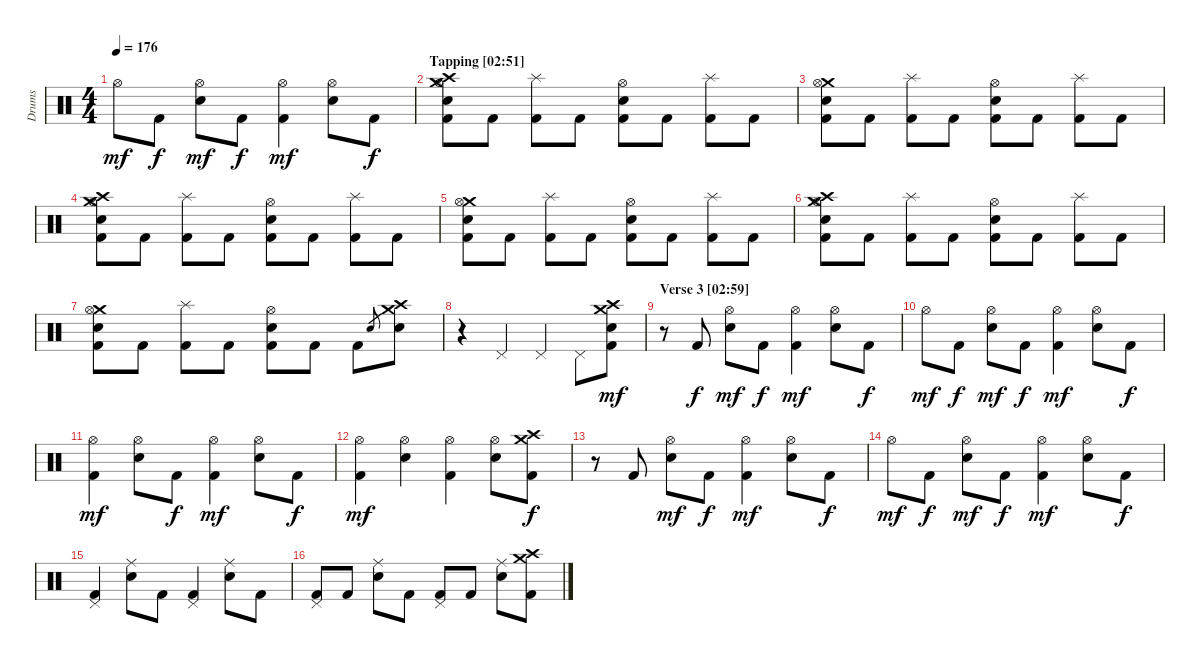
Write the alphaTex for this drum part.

\track ("Drums" "Drums") {instrument percussion}
\staff {score}
\articulation defaults
\ts (4 4)
\tempo 176
\clef neutral
\ks c "Hi-Hat (open)".8{dy mf} "Kick (hit) 2".8{dy f}
("Hi-Hat (open)" "Electric Snare (hit)").8{dy mf} "Kick (hit) 2".8{dy f} ("Hi-Hat (open)" "Kick (hit) 2").4{dy mf} ("Hi-Hat (open)" "Electric Snare (hit)").8 "Kick (hit) 2".8{dy f} |
\section ("" "Tapping [02:51]")
("Crash medium (hit)" "Hi-Hat (open)" "Crash high (hit)" "Electric Snare (hit)" "Kick (hit) 2").8 "Kick (hit) 2".8 ("Splash (hit)" "Kick (hit) 2").8 "Kick (hit) 2".8 ("Hi-Hat (open)" "Electric Snare (hit)" "Kick (hit) 2").8 "Kick (hit) 2".8 ("Splash (hit)" "Kick (hit) 2").8 "Kick (hit) 2".8 |
("Crash medium (hit)" "Hi-Hat (open)" "Electric Snare (hit)" "Kick (hit) 2").8 "Kick (hit) 2".8 ("Splash (hit)" "Kick (hit) 2").8 "Kick (hit) 2".8 ("Hi-Hat (open)" "Electric Snare (hit)" "Kick (hit) 2").8 "Kick (hit) 2".8 ("Splash (hit)" "Kick (hit) 2").8 "Kick (hit) 2".8 |
("Crash medium (hit)" "Hi-Hat (open)" "Crash high (hit)" "Electric Snare (hit)" "Kick (hit) 2").8 "Kick (hit) 2".8 ("Splash (hit)" "Kick (hit) 2").8 "Kick (hit) 2".8 ("Hi-Hat (open)" "Electric Snare (hit)" "Kick (hit) 2").8 "Kick (hit) 2".8 ("Splash (hit)" "Kick (hit) 2").8 "Kick (hit) 2".8 |
("Crash medium (hit)" "Hi-Hat (open)" "Electric Snare (hit)" "Kick (hit) 2").8 "Kick (hit) 2".8 ("Splash (hit)" "Kick (hit) 2").8 "Kick (hit) 2".8 ("Hi-Hat (open)" "Electric Snare (hit)" "Kick (hit) 2").8 "Kick (hit) 2".8 ("Splash (hit)" "Kick (hit) 2").8 "Kick (hit) 2".8 |
("Crash medium (hit)" "Hi-Hat (open)" "Crash high (hit)" "Electric Snare (hit)" "Kick (hit) 2").8 "Kick (hit) 2".8 ("Splash (hit)" "Kick (hit) 2").8 "Kick (hit) 2".8 ("Hi-Hat (open)" "Electric Snare (hit)" "Kick (hit) 2").8 "Kick (hit) 2".8 ("Splash (hit)" "Kick (hit) 2").8 "Kick (hit) 2".8 |
("Crash medium (hit)" "Hi-Hat (open)" "Electric Snare (hit)" "Kick (hit) 2").8 "Kick (hit) 2".8 ("Splash (hit)" "Kick (hit) 2").8 "Kick (hit) 2".8 ("Hi-Hat (open)" "Electric Snare (hit)" "Kick (hit) 2").8 "Kick (hit) 2".8 "Kick (hit) 2".8 "Snare (hit) 2".8{gr} ("Crash medium (hit)" "Crash high (hit)" "Electric Snare (hit)").8 |
r.4 "Pedal Hi-Hat (hit)".4 "Pedal Hi-Hat (hit)".4 "Pedal Hi-Hat (hit)".8 ("Crash medium (hit)" "Crash high (hit)" "Electric Snare (hit)" "Kick (hit) 2").8{dy mf} |
\section ("" "Verse 3 [02:59]")
r.8 "Kick (hit) 2".8{dy f} ("Hi-Hat (open)" "Electric Snare (hit)").8{dy mf} "Kick (hit) 2".8{dy f} ("Hi-Hat (open)" "Kick (hit) 2").4{dy mf} ("Hi-Hat (open)" "Electric Snare (hit)").8 "Kick (hit) 2".8{dy f} |
"Hi-Hat (open)".8{dy mf} "Kick (hit) 2".8{dy f} ("Hi-Hat (open)" "Electric Snare (hit)").8{dy mf} "Kick (hit) 2".8{dy f} ("Hi-Hat (open)" "Kick (hit) 2").4{dy mf} ("Hi-Hat (open)" "Electric Snare (hit)").8 "Kick (hit) 2".8{dy f} |
("Hi-Hat (open)" "Kick (hit) 2").4{dy mf} ("Hi-Hat (open)" "Electric Snare (hit)").8 "Kick (hit) 2".8{dy f} ("Hi-Hat (open)" "Kick (hit) 2").4{dy mf} ("Hi-Hat (open)" "Electric Snare (hit)").8 "Kick (hit) 2".8{dy f} |
("Hi-Hat (open)" "Kick (hit) 2").4{dy mf} ("Hi-Hat (open)" "Electric Snare (hit)").4 ("Hi-Hat (open)" "Kick (hit) 2").4 ("Hi-Hat (open)" "Electric Snare (hit)").8 ("Crash medium (hit)" "Crash high (hit)" "Kick (hit) 2").8{dy f} |
r.8 "Kick (hit) 2".8 ("Hi-Hat (open)" "Electric Snare (hit)").8{dy mf} "Kick (hit) 2".8{dy f} ("Hi-Hat (open)" "Kick (hit) 2").4{dy mf} ("Hi-Hat (open)" "Electric Snare (hit)").8 "Kick (hit) 2".8{dy f} |
"Hi-Hat (open)".8{dy mf} "Kick (hit) 2".8{dy f} ("Hi-Hat (open)" "Electric Snare (hit)").8{dy mf} "Kick (hit) 2".8{dy f} ("Hi-Hat (open)" "Kick (hit) 2").4{dy mf} ("Hi-Hat (open)" "Electric Snare (hit)").8 "Kick (hit) 2".8{dy f} |
("Pedal Hi-Hat (hit)" "Kick (hit) 2").4 ("Ride (middle)" "Electric Snare (hit)").8 "Kick (hit) 2".8 ("Pedal Hi-Hat (hit)" "Kick (hit) 2").4 ("Ride (middle)" "Electric Snare (hit)").8 "Kick (hit) 2".8 |
("Pedal Hi-Hat (hit)" "Kick (hit) 2").8 "Kick (hit) 2".8 ("Ride (middle)" "Electric Snare (hit)").8 "Kick (hit) 2".8 ("Pedal Hi-Hat (hit)" "Kick (hit) 2").8 "Kick (hit) 2".8 ("Ride (middle)" "Electric Snare (hit)").8 ("Crash medium (hit)" "Crash high (hit)" "Kick (hit) 2").8
